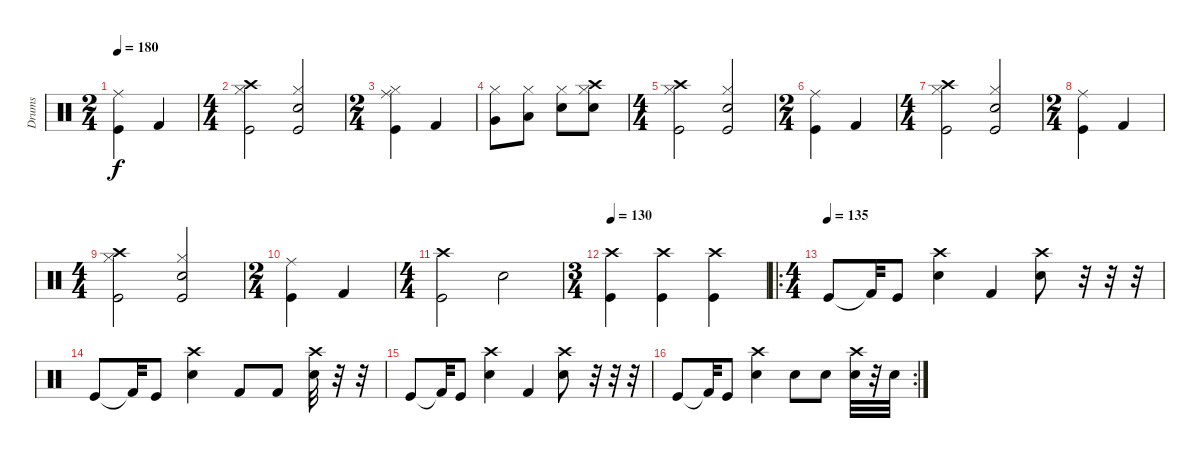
\track ("Drums" "Drums") {instrument percussion}
\staff {score}
\articulation defaults
\ts (2 4)
\tempo 180
\clef neutral
\ks c
("Ride (middle)" "Kick (hit)").4{dy f} "Kick (hit) 2".4 |
\ts (4 4)
("Crash high (hit)" "Kick (hit)" "Hi-Hat (closed)").2 ("Snare (hit) 2" "Kick (hit)" "Hi-Hat (closed)").2 |
\ts (2 4)
("Ride (middle)" "Kick (hit)" "Hi-Hat (closed)").4 "Kick (hit) 2".4 |
("Very Low Tom (hit)" "Hi-Hat (closed)").8 ("Low Tom (hit)" "Hi-Hat (closed)").8 ("Snare (hit) 2" "Hi-Hat (closed)").8 ("Crash high (hit)" "Snare (hit) 2" "Hi-Hat (closed)").8 |
\ts (4 4)
("Crash high (hit)" "Kick (hit)" "Hi-Hat (closed)").2 ("Snare (hit) 2" "Kick (hit)" "Hi-Hat (closed)").2 |
\ts (2 4)
("Ride (middle)" "Kick (hit)").4 "Kick (hit) 2".4 |
\ts (4 4)
("Crash high (hit)" "Kick (hit)" "Hi-Hat (closed)").2 ("Snare (hit) 2" "Kick (hit)" "Hi-Hat (closed)").2 |
\ts (2 4)
("Ride (middle)" "Kick (hit)").4 "Kick (hit) 2".4 |
\ts (4 4)
("Crash high (hit)" "Kick (hit)" "Hi-Hat (closed)").2 ("Snare (hit) 2" "Kick (hit)" "Hi-Hat (closed)").2 |
\ts (2 4)
("Ride (middle)" "Kick (hit)").4 "Kick (hit) 2".4 |
\ts (4 4)
("Crash high (hit)" "Kick (hit)").2 "Snare (hit) 2".2 |
\ts (3 4)
\tempo 130
("Crash high (hit)" "Kick (hit)").4 ("Crash high (hit)" "Kick (hit)").4 ("Crash high (hit)" "Kick (hit)").4 |
\ro
\ts (4 4)
\tempo (135)
"Kick (hit)".8 "Kick (hit) 2"{t}.32 "Kick (hit)".8 ("Crash high (hit)" "Snare (hit) 2").4 "Kick (hit) 2".4 ("Crash high (hit)" "Snare (hit) 2").8 r.32 r.32 r.32 |
"Kick (hit)".8 "Kick (hit) 2"{t}.32 "Kick (hit)".8 ("Crash high (hit)" "Snare (hit) 2").4 "Kick (hit) 2".8 "Kick (hit) 2".8 ("Crash high (hit)" "Snare (hit) 2").32 r.32 r.32 |
"Kick (hit)".8 "Kick (hit) 2"{t}.32 "Kick (hit)".8 ("Crash high (hit)" "Snare (hit) 2").4 "Kick (hit) 2".4 ("Crash high (hit)" "Snare (hit) 2").8 r.32 r.32 r.32 |
\rc 2 "Kick (hit)".8 "Kick (hit) 2"{t}.32 "Kick (hit)".8
("Crash high (hit)" "Snare (hit) 2").4 "Snare (hit) 2".8 "Snare (hit) 2".8 ("Crash high (hit)" "Snare (hit) 2").32 r.32 "Snare (hit) 2".32
